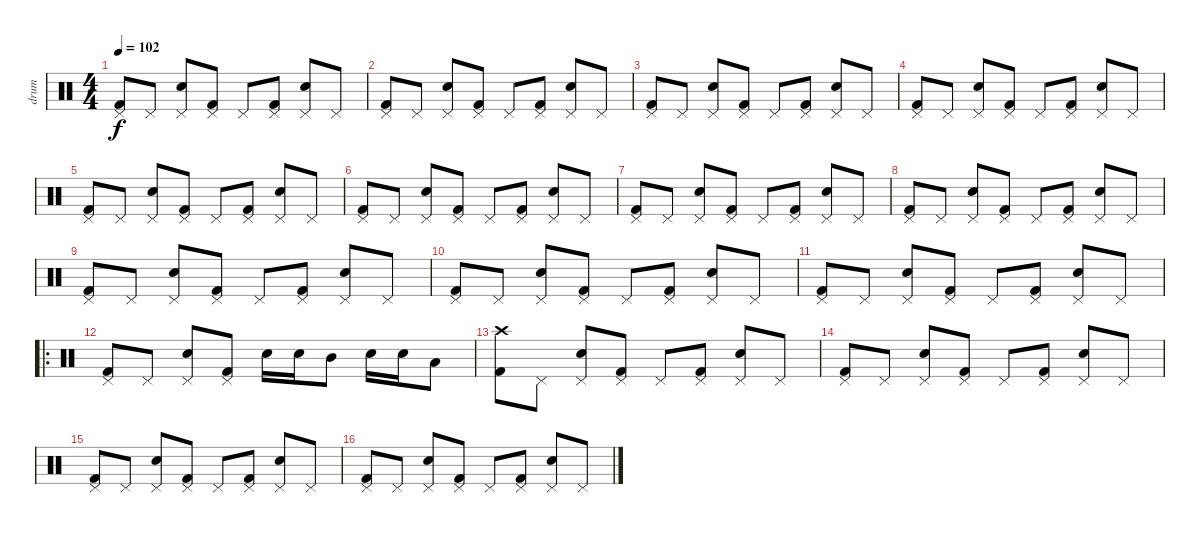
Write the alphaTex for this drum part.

\track ("drum " "drum ") {instrument percussion}
\staff {score}
\articulation defaults
\ts (4 4)
\tempo 102
\clef neutral
\ks c
("Pedal Hi-Hat (hit)" "Kick (hit) 2").8{dy f} "Pedal Hi-Hat (hit)".8 ("Pedal Hi-Hat (hit)" "Snare (hit) 2").8 ("Pedal Hi-Hat (hit)" "Kick (hit) 2").8 "Pedal Hi-Hat (hit)".8 ("Pedal Hi-Hat (hit)" "Kick (hit) 2").8 ("Pedal Hi-Hat (hit)" "Snare (hit) 2").8 "Pedal Hi-Hat (hit)".8 |
("Pedal Hi-Hat (hit)" "Kick (hit) 2").8 "Pedal Hi-Hat (hit)".8 ("Pedal Hi-Hat (hit)" "Snare (hit) 2").8 ("Pedal Hi-Hat (hit)" "Kick (hit) 2").8 "Pedal Hi-Hat (hit)".8 ("Pedal Hi-Hat (hit)" "Kick (hit) 2").8 ("Pedal Hi-Hat (hit)" "Snare (hit) 2").8 "Pedal Hi-Hat (hit)".8 |
("Pedal Hi-Hat (hit)" "Kick (hit) 2").8 "Pedal Hi-Hat (hit)".8 ("Pedal Hi-Hat (hit)" "Snare (hit) 2").8 ("Pedal Hi-Hat (hit)" "Kick (hit) 2").8 "Pedal Hi-Hat (hit)".8 ("Pedal Hi-Hat (hit)" "Kick (hit) 2").8 ("Pedal Hi-Hat (hit)" "Snare (hit) 2").8 "Pedal Hi-Hat (hit)".8 |
("Pedal Hi-Hat (hit)" "Kick (hit) 2").8 "Pedal Hi-Hat (hit)".8 ("Pedal Hi-Hat (hit)" "Snare (hit) 2").8 ("Pedal Hi-Hat (hit)" "Kick (hit) 2").8 "Pedal Hi-Hat (hit)".8 ("Pedal Hi-Hat (hit)" "Kick (hit) 2").8 ("Pedal Hi-Hat (hit)" "Snare (hit) 2").8 "Pedal Hi-Hat (hit)".8 |
("Pedal Hi-Hat (hit)" "Kick (hit) 2").8 "Pedal Hi-Hat (hit)".8 ("Pedal Hi-Hat (hit)" "Snare (hit) 2").8 ("Pedal Hi-Hat (hit)" "Kick (hit) 2").8 "Pedal Hi-Hat (hit)".8 ("Pedal Hi-Hat (hit)" "Kick (hit) 2").8 ("Pedal Hi-Hat (hit)" "Snare (hit) 2").8 "Pedal Hi-Hat (hit)".8 |
("Pedal Hi-Hat (hit)" "Kick (hit) 2").8 "Pedal Hi-Hat (hit)".8 ("Pedal Hi-Hat (hit)" "Snare (hit) 2").8 ("Pedal Hi-Hat (hit)" "Kick (hit) 2").8 "Pedal Hi-Hat (hit)".8 ("Pedal Hi-Hat (hit)" "Kick (hit) 2").8 ("Pedal Hi-Hat (hit)" "Snare (hit) 2").8 "Pedal Hi-Hat (hit)".8 |
("Pedal Hi-Hat (hit)" "Kick (hit) 2").8 "Pedal Hi-Hat (hit)".8 ("Pedal Hi-Hat (hit)" "Snare (hit) 2").8 ("Pedal Hi-Hat (hit)" "Kick (hit) 2").8 "Pedal Hi-Hat (hit)".8 ("Pedal Hi-Hat (hit)" "Kick (hit) 2").8 ("Pedal Hi-Hat (hit)" "Snare (hit) 2").8 "Pedal Hi-Hat (hit)".8 |
("Pedal Hi-Hat (hit)" "Kick (hit) 2").8 "Pedal Hi-Hat (hit)".8 ("Pedal Hi-Hat (hit)" "Snare (hit) 2").8 ("Pedal Hi-Hat (hit)" "Kick (hit) 2").8 "Pedal Hi-Hat (hit)".8 ("Pedal Hi-Hat (hit)" "Kick (hit) 2").8 ("Pedal Hi-Hat (hit)" "Snare (hit) 2").8 "Pedal Hi-Hat (hit)".8 |
("Pedal Hi-Hat (hit)" "Kick (hit) 2").8 "Pedal Hi-Hat (hit)".8 ("Pedal Hi-Hat (hit)" "Snare (hit) 2").8 ("Pedal Hi-Hat (hit)" "Kick (hit) 2").8 "Pedal Hi-Hat (hit)".8 ("Pedal Hi-Hat (hit)" "Kick (hit) 2").8 ("Pedal Hi-Hat (hit)" "Snare (hit) 2").8 "Pedal Hi-Hat (hit)".8 |
("Pedal Hi-Hat (hit)" "Kick (hit) 2").8 "Pedal Hi-Hat (hit)".8 ("Pedal Hi-Hat (hit)" "Snare (hit) 2").8 ("Pedal Hi-Hat (hit)" "Kick (hit) 2").8 "Pedal Hi-Hat (hit)".8 ("Pedal Hi-Hat (hit)" "Kick (hit) 2").8 ("Pedal Hi-Hat (hit)" "Snare (hit) 2").8 "Pedal Hi-Hat (hit)".8 |
("Pedal Hi-Hat (hit)" "Kick (hit) 2").8 "Pedal Hi-Hat (hit)".8 ("Pedal Hi-Hat (hit)" "Snare (hit) 2").8 ("Pedal Hi-Hat (hit)" "Kick (hit) 2").8 "Pedal Hi-Hat (hit)".8 ("Pedal Hi-Hat (hit)" "Kick (hit) 2").8 ("Pedal Hi-Hat (hit)" "Snare (hit) 2").8 "Pedal Hi-Hat (hit)".8 |
\ro
("Pedal Hi-Hat (hit)" "Kick (hit) 2").8 "Pedal Hi-Hat (hit)".8 ("Pedal Hi-Hat (hit)" "Snare (hit) 2").8 ("Pedal Hi-Hat (hit)" "Kick (hit) 2").8 "Snare (hit) 2".16 "Snare (hit) 2".16 "Mid Tom (hit)".8 "Snare (hit) 2".16 "Snare (hit) 2".16 "Low Tom (hit)".8 |
("Crash high (hit)" "Kick (hit) 2").8 "Pedal Hi-Hat (hit)".8 ("Pedal Hi-Hat (hit)" "Snare (hit) 2").8 ("Pedal Hi-Hat (hit)" "Kick (hit) 2").8 "Pedal Hi-Hat (hit)".8 ("Pedal Hi-Hat (hit)" "Kick (hit) 2").8 ("Pedal Hi-Hat (hit)" "Snare (hit) 2").8 "Pedal Hi-Hat (hit)".8 |
("Pedal Hi-Hat (hit)" "Kick (hit) 2").8 "Pedal Hi-Hat (hit)".8 ("Pedal Hi-Hat (hit)" "Snare (hit) 2").8 ("Pedal Hi-Hat (hit)" "Kick (hit) 2").8 "Pedal Hi-Hat (hit)".8 ("Pedal Hi-Hat (hit)" "Kick (hit) 2").8 ("Pedal Hi-Hat (hit)" "Snare (hit) 2").8 "Pedal Hi-Hat (hit)".8 |
("Pedal Hi-Hat (hit)" "Kick (hit) 2").8 "Pedal Hi-Hat (hit)".8 ("Pedal Hi-Hat (hit)" "Snare (hit) 2").8 ("Pedal Hi-Hat (hit)" "Kick (hit) 2").8 "Pedal Hi-Hat (hit)".8 ("Pedal Hi-Hat (hit)" "Kick (hit) 2").8 ("Pedal Hi-Hat (hit)" "Snare (hit) 2").8 "Pedal Hi-Hat (hit)".8 |
("Pedal Hi-Hat (hit)" "Kick (hit) 2").8 "Pedal Hi-Hat (hit)".8 ("Pedal Hi-Hat (hit)" "Snare (hit) 2").8 ("Pedal Hi-Hat (hit)" "Kick (hit) 2").8 "Pedal Hi-Hat (hit)".8 ("Pedal Hi-Hat (hit)" "Kick (hit) 2").8 ("Pedal Hi-Hat (hit)" "Snare (hit) 2").8 "Pedal Hi-Hat (hit)".8
